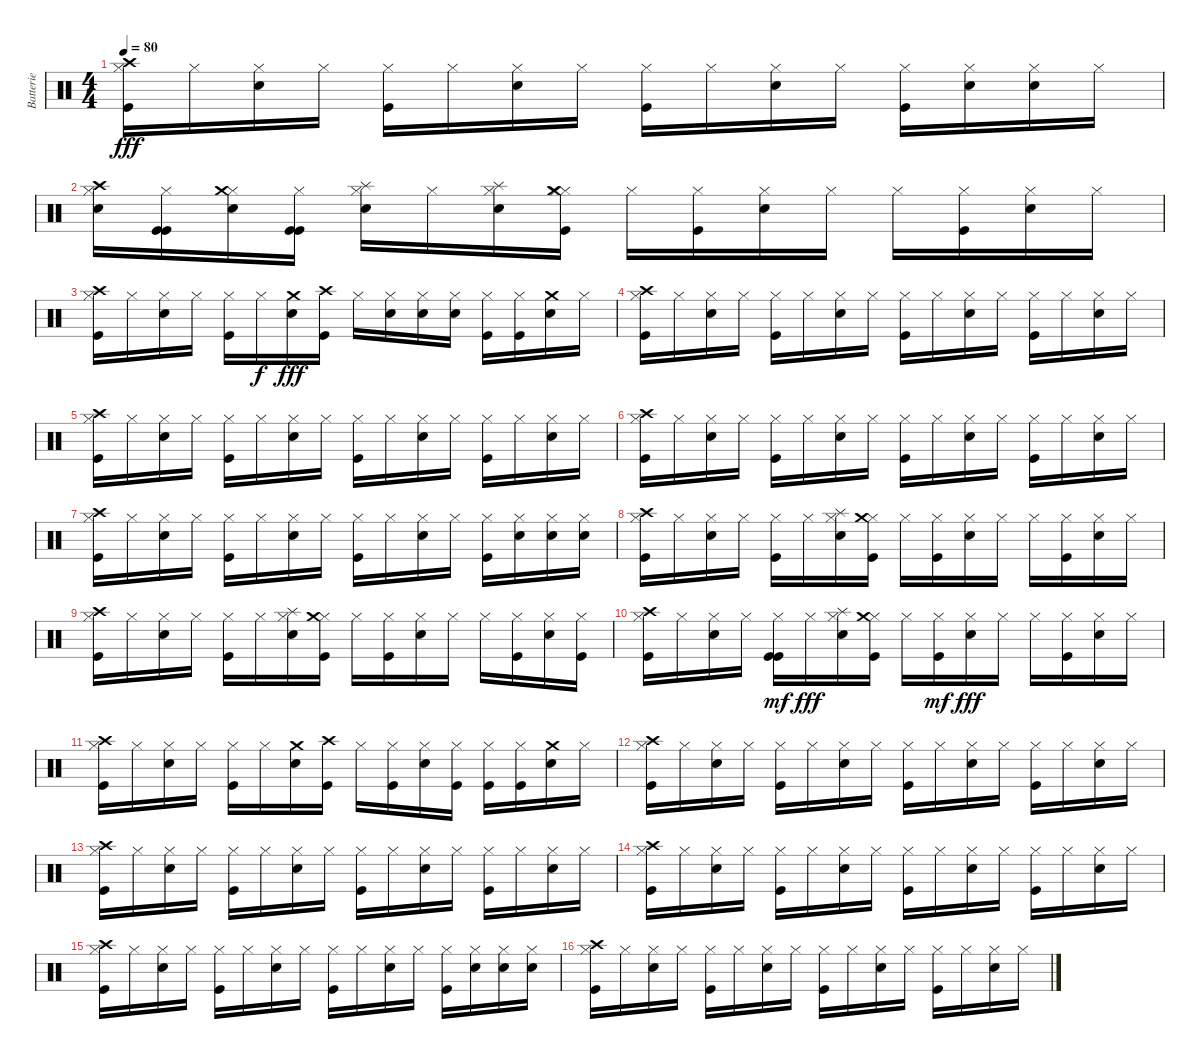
\track ("Batterie" "Batterie") {instrument percussion}
\staff {score}
\articulation defaults
\ts (4 4)
\tempo 80
\clef neutral
\ks c
("Kick (hit)" "Hi-Hat (closed)" "Crash high (hit)").16{dy fff} "Hi-Hat (closed)".16 ("Hi-Hat (closed)" "Metronome (bell)").16 "Hi-Hat (closed)".16 ("Kick (hit)" "Hi-Hat (closed)").16 "Hi-Hat (closed)".16 ("Hi-Hat (closed)" "Metronome (bell)").16 "Hi-Hat (closed)".16 ("Kick (hit)" "Hi-Hat (closed)").16 "Hi-Hat (closed)".16 ("Hi-Hat (closed)" "Metronome (bell)").16 "Hi-Hat (closed)".16 ("Hi-Hat (closed)" "Kick (hit)").16 ("Hi-Hat (closed)" "Metronome (bell)").16 ("Hi-Hat (closed)" "Metronome (bell)").16 "Hi-Hat (closed)".16 |
("Hi-Hat (closed)" "Metronome (bell)" "Crash high (hit)").16 ("Kick (hit)" "Hi-Hat (closed)" "Kick (hit)").16 ("Hi-Hat (closed)" "Metronome (bell)" "Crash medium (hit)").16 ("Kick (hit)" "Hi-Hat (closed)" "Kick (hit)").16 ("Hi-Hat (closed)" "Metronome (bell)" "Splash (hit)").16 "Hi-Hat (closed)".16 ("Hi-Hat (closed)" "Metronome (bell)" "Splash (hit)").16 ("Hi-Hat (closed)" "Hi-Hat (closed)" "Kick (hit)" "Crash medium (hit)").16 "Hi-Hat (closed)".16 ("Hi-Hat (closed)" "Kick (hit)").16 ("Hi-Hat (closed)" "Metronome (bell)").16 "Hi-Hat (closed)".16 "Hi-Hat (closed)".16 ("Hi-Hat (closed)" "Kick (hit)").16 ("Hi-Hat (closed)" "Metronome (bell)").16 "Hi-Hat (closed)".16 |
("Kick (hit)" "Hi-Hat (closed)" "Crash high (hit)").16 "Hi-Hat (closed)".16 ("Hi-Hat (closed)" "Metronome (bell)").16 "Hi-Hat (closed)".16 ("Hi-Hat (closed)" "Kick (hit)").16 "Hi-Hat (closed)".16{dy f} ("Metronome (bell)" "Crash medium (hit)").16{dy fff} ("Kick (hit)" "Crash high (hit)").16 "Hi-Hat (closed)".16 ("Hi-Hat (closed)" "Metronome (bell)").16 ("Hi-Hat (closed)" "Metronome (bell)").16 ("Hi-Hat (closed)" "Metronome (bell)").16 ("Hi-Hat (closed)" "Kick (hit)").16 ("Hi-Hat (closed)" "Kick (hit)").16 ("Metronome (bell)" "Crash medium (hit)").16 "Hi-Hat (closed)".16 |
("Hi-Hat (closed)" "Kick (hit)" "Crash high (hit)").16 "Hi-Hat (closed)".16 ("Hi-Hat (closed)" "Metronome (bell)").16 "Hi-Hat (closed)".16 ("Hi-Hat (closed)" "Kick (hit)").16 "Hi-Hat (closed)".16 ("Hi-Hat (closed)" "Metronome (bell)").16 "Hi-Hat (closed)".16 ("Hi-Hat (closed)" "Kick (hit)").16 "Hi-Hat (closed)".16 ("Hi-Hat (closed)" "Metronome (bell)").16 "Hi-Hat (closed)".16 ("Hi-Hat (closed)" "Kick (hit)").16 "Hi-Hat (closed)".16 ("Hi-Hat (closed)" "Metronome (bell)").16 "Hi-Hat (closed)".16 |
("Hi-Hat (closed)" "Kick (hit)" "Crash high (hit)").16 "Hi-Hat (closed)".16 ("Hi-Hat (closed)" "Metronome (bell)").16 "Hi-Hat (closed)".16 ("Hi-Hat (closed)" "Kick (hit)").16 "Hi-Hat (closed)".16 ("Hi-Hat (closed)" "Metronome (bell)").16 "Hi-Hat (closed)".16 ("Hi-Hat (closed)" "Kick (hit)").16 "Hi-Hat (closed)".16 ("Hi-Hat (closed)" "Metronome (bell)").16 "Hi-Hat (closed)".16 ("Hi-Hat (closed)" "Kick (hit)").16 "Hi-Hat (closed)".16 ("Hi-Hat (closed)" "Metronome (bell)").16 "Hi-Hat (closed)".16 |
("Hi-Hat (closed)" "Kick (hit)" "Crash high (hit)").16 "Hi-Hat (closed)".16 ("Hi-Hat (closed)" "Metronome (bell)").16 "Hi-Hat (closed)".16 ("Hi-Hat (closed)" "Kick (hit)").16 "Hi-Hat (closed)".16 ("Hi-Hat (closed)" "Metronome (bell)").16 "Hi-Hat (closed)".16 ("Hi-Hat (closed)" "Kick (hit)").16 "Hi-Hat (closed)".16 ("Hi-Hat (closed)" "Metronome (bell)").16 "Hi-Hat (closed)".16 ("Hi-Hat (closed)" "Kick (hit)").16 "Hi-Hat (closed)".16 ("Hi-Hat (closed)" "Metronome (bell)").16 "Hi-Hat (closed)".16 |
("Hi-Hat (closed)" "Kick (hit)" "Crash high (hit)").16 "Hi-Hat (closed)".16 ("Hi-Hat (closed)" "Metronome (bell)").16 "Hi-Hat (closed)".16 ("Hi-Hat (closed)" "Kick (hit)").16 "Hi-Hat (closed)".16 ("Hi-Hat (closed)" "Metronome (bell)").16 "Hi-Hat (closed)".16 ("Hi-Hat (closed)" "Kick (hit)").16 "Hi-Hat (closed)".16 ("Hi-Hat (closed)" "Metronome (bell)").16 "Hi-Hat (closed)".16 ("Hi-Hat (closed)" "Kick (hit)").16 ("Hi-Hat (closed)" "Metronome (bell)").16 ("Hi-Hat (closed)" "Metronome (bell)").16 ("Hi-Hat (closed)" "Metronome (bell)").16 |
("Hi-Hat (closed)" "Kick (hit)" "Crash high (hit)").16 "Hi-Hat (closed)".16 ("Hi-Hat (closed)" "Metronome (bell)").16 "Hi-Hat (closed)".16 ("Hi-Hat (closed)" "Kick (hit)").16 "Hi-Hat (closed)".16 ("Hi-Hat (closed)" "Metronome (bell)" "Splash (hit)").16 ("Hi-Hat (closed)" "Kick (hit)" "Crash medium (hit)").16 "Hi-Hat (closed)".16 ("Hi-Hat (closed)" "Kick (hit)").16 ("Hi-Hat (closed)" "Metronome (bell)").16 "Hi-Hat (closed)".16 "Hi-Hat (closed)".16 ("Hi-Hat (closed)" "Kick (hit)").16 ("Hi-Hat (closed)" "Metronome (bell)").16 "Hi-Hat (closed)".16 |
("Hi-Hat (closed)" "Kick (hit)" "Crash high (hit)").16 "Hi-Hat (closed)".16 ("Hi-Hat (closed)" "Metronome (bell)").16 "Hi-Hat (closed)".16 ("Hi-Hat (closed)" "Kick (hit)").16 "Hi-Hat (closed)".16 ("Hi-Hat (closed)" "Metronome (bell)" "Splash (hit)").16 ("Hi-Hat (closed)" "Kick (hit)" "Crash medium (hit)").16 "Hi-Hat (closed)".16 ("Hi-Hat (closed)" "Kick (hit)").16 ("Hi-Hat (closed)" "Metronome (bell)").16 "Hi-Hat (closed)".16 "Hi-Hat (closed)".16 ("Hi-Hat (closed)" "Kick (hit)").16 ("Hi-Hat (closed)" "Metronome (bell)").16 ("Hi-Hat (closed)" "Kick (hit)").16 |
("Hi-Hat (closed)" "Kick (hit)" "Crash high (hit)").16 "Hi-Hat (closed)".16 ("Hi-Hat (closed)" "Metronome (bell)").16 "Hi-Hat (closed)".16 ("Hi-Hat (closed)" "Kick (hit)" "Kick (hit)").16{dy mf} "Hi-Hat (closed)".16{dy fff} ("Hi-Hat (closed)" "Metronome (bell)" "Splash (hit)").16 ("Hi-Hat (closed)" "Kick (hit)" "Crash medium (hit)").16 "Hi-Hat (closed)".16 ("Hi-Hat (closed)" "Kick (hit)").16{dy mf} ("Hi-Hat (closed)" "Metronome (bell)").16{dy fff} "Hi-Hat (closed)".16 "Hi-Hat (closed)".16 ("Hi-Hat (closed)" "Kick (hit)").16 ("Hi-Hat (closed)" "Metronome (bell)").16 "Hi-Hat (closed)".16 |
("Kick (hit)" "Hi-Hat (closed)" "Crash high (hit)").16 "Hi-Hat (closed)".16 ("Metronome (bell)" "Hi-Hat (closed)").16 "Hi-Hat (closed)".16 ("Kick (hit)" "Hi-Hat (closed)").16 "Hi-Hat (closed)".16 ("Metronome (bell)" "Crash medium (hit)").16 ("Kick (hit)" "Crash high (hit)").16 "Hi-Hat (closed)".16 ("Kick (hit)" "Hi-Hat (closed)").16 ("Metronome (bell)" "Hi-Hat (closed)").16 ("Kick (hit)" "Hi-Hat (closed)").16 ("Kick (hit)" "Hi-Hat (closed)").16 ("Kick (hit)" "Hi-Hat (closed)").16 ("Metronome (bell)" "Crash medium (hit)").16 "Hi-Hat (closed)".16 |
("Hi-Hat (closed)" "Kick (hit)" "Crash high (hit)").16 "Hi-Hat (closed)".16 ("Hi-Hat (closed)" "Metronome (bell)").16 "Hi-Hat (closed)".16 ("Hi-Hat (closed)" "Kick (hit)").16 "Hi-Hat (closed)".16 ("Hi-Hat (closed)" "Metronome (bell)").16 "Hi-Hat (closed)".16 ("Hi-Hat (closed)" "Kick (hit)").16 "Hi-Hat (closed)".16 ("Hi-Hat (closed)" "Metronome (bell)").16 "Hi-Hat (closed)".16 ("Hi-Hat (closed)" "Kick (hit)").16 "Hi-Hat (closed)".16 ("Hi-Hat (closed)" "Metronome (bell)").16 "Hi-Hat (closed)".16 |
("Hi-Hat (closed)" "Kick (hit)" "Crash high (hit)").16 "Hi-Hat (closed)".16 ("Hi-Hat (closed)" "Metronome (bell)").16 "Hi-Hat (closed)".16 ("Hi-Hat (closed)" "Kick (hit)").16 "Hi-Hat (closed)".16 ("Hi-Hat (closed)" "Metronome (bell)").16 "Hi-Hat (closed)".16 ("Hi-Hat (closed)" "Kick (hit)").16 "Hi-Hat (closed)".16 ("Hi-Hat (closed)" "Metronome (bell)").16 "Hi-Hat (closed)".16 ("Hi-Hat (closed)" "Kick (hit)").16 "Hi-Hat (closed)".16 ("Hi-Hat (closed)" "Metronome (bell)").16 "Hi-Hat (closed)".16 |
("Hi-Hat (closed)" "Kick (hit)" "Crash high (hit)").16 "Hi-Hat (closed)".16 ("Hi-Hat (closed)" "Metronome (bell)").16 "Hi-Hat (closed)".16 ("Hi-Hat (closed)" "Kick (hit)").16 "Hi-Hat (closed)".16 ("Hi-Hat (closed)" "Metronome (bell)").16 "Hi-Hat (closed)".16 ("Hi-Hat (closed)" "Kick (hit)").16 "Hi-Hat (closed)".16 ("Hi-Hat (closed)" "Metronome (bell)").16 "Hi-Hat (closed)".16 ("Hi-Hat (closed)" "Kick (hit)").16 "Hi-Hat (closed)".16 ("Hi-Hat (closed)" "Metronome (bell)").16 "Hi-Hat (closed)".16 |
("Hi-Hat (closed)" "Kick (hit)" "Crash high (hit)").16 "Hi-Hat (closed)".16 ("Hi-Hat (closed)" "Metronome (bell)").16 "Hi-Hat (closed)".16 ("Hi-Hat (closed)" "Kick (hit)").16 "Hi-Hat (closed)".16 ("Hi-Hat (closed)" "Metronome (bell)").16 "Hi-Hat (closed)".16 ("Hi-Hat (closed)" "Kick (hit)").16 "Hi-Hat (closed)".16 ("Hi-Hat (closed)" "Metronome (bell)").16 "Hi-Hat (closed)".16 ("Hi-Hat (closed)" "Kick (hit)").16 ("Hi-Hat (closed)" "Metronome (bell)").16 ("Hi-Hat (closed)" "Metronome (bell)").16 ("Hi-Hat (closed)" "Metronome (bell)").16 |
("Hi-Hat (closed)" "Kick (hit)" "Crash high (hit)").16 "Hi-Hat (closed)".16 ("Hi-Hat (closed)" "Metronome (bell)").16 "Hi-Hat (closed)".16 ("Hi-Hat (closed)" "Kick (hit)").16 "Hi-Hat (closed)".16 ("Hi-Hat (closed)" "Metronome (bell)").16 "Hi-Hat (closed)".16 ("Hi-Hat (closed)" "Kick (hit)").16 "Hi-Hat (closed)".16 ("Hi-Hat (closed)" "Metronome (bell)").16 "Hi-Hat (closed)".16 ("Hi-Hat (closed)" "Kick (hit)").16 "Hi-Hat (closed)".16 ("Hi-Hat (closed)" "Metronome (bell)").16 "Hi-Hat (closed)".16
